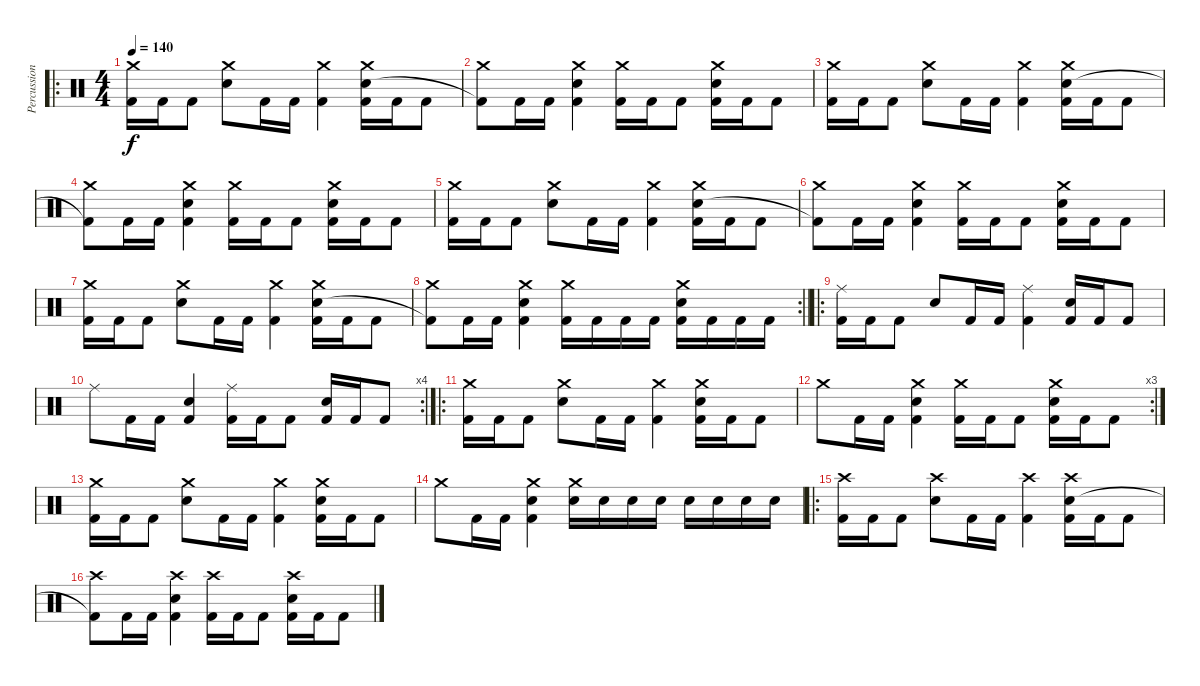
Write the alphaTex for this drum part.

\track ("Percussion" "Percussion") {instrument percussion}
\staff {score}
\articulation defaults
\ro
\ts (4 4)
\tempo 140
\clef neutral
\ks c
("Crash medium (hit)" "Kick (hit) 2").16{dy f} "Kick (hit) 2".16 "Kick (hit) 2".8 ("Crash medium (hit)" "Electric Snare (hit)").8 "Kick (hit) 2".16 "Kick (hit) 2".16 ("Crash medium (hit)" "Kick (hit) 2").4 ("Crash medium (hit)" "Electric Snare (hit)" "Kick (hit) 2").16 "Kick (hit) 2".16 "Kick (hit) 2".8 |
("Crash medium (hit)" "Kick (hit) 2"{t}).8 "Kick (hit) 2".16 "Kick (hit) 2".16 ("Crash medium (hit)" "Electric Snare (hit)" "Kick (hit) 2").4 ("Crash medium (hit)" "Kick (hit) 2").16 "Kick (hit) 2".16 "Kick (hit) 2".8 ("Crash medium (hit)" "Electric Snare (hit)" "Kick (hit) 2").16 "Kick (hit) 2".16 "Kick (hit) 2".8 |
("Crash medium (hit)" "Kick (hit) 2").16 "Kick (hit) 2".16 "Kick (hit) 2".8 ("Crash medium (hit)" "Electric Snare (hit)").8 "Kick (hit) 2".16 "Kick (hit) 2".16 ("Crash medium (hit)" "Kick (hit) 2").4 ("Crash medium (hit)" "Electric Snare (hit)" "Kick (hit) 2").16 "Kick (hit) 2".16 "Kick (hit) 2".8 |
("Crash medium (hit)" "Kick (hit) 2"{t}).8 "Kick (hit) 2".16 "Kick (hit) 2".16 ("Crash medium (hit)" "Electric Snare (hit)" "Kick (hit) 2").4 ("Crash medium (hit)" "Kick (hit) 2").16 "Kick (hit) 2".16 "Kick (hit) 2".8 ("Crash medium (hit)" "Electric Snare (hit)" "Kick (hit) 2").16 "Kick (hit) 2".16 "Kick (hit) 2".8 |
("Crash medium (hit)" "Kick (hit) 2").16 "Kick (hit) 2".16 "Kick (hit) 2".8 ("Crash medium (hit)" "Electric Snare (hit)").8 "Kick (hit) 2".16 "Kick (hit) 2".16 ("Crash medium (hit)" "Kick (hit) 2").4 ("Crash medium (hit)" "Electric Snare (hit)" "Kick (hit) 2").16 "Kick (hit) 2".16 "Kick (hit) 2".8 |
("Crash medium (hit)" "Kick (hit) 2"{t}).8 "Kick (hit) 2".16 "Kick (hit) 2".16 ("Crash medium (hit)" "Electric Snare (hit)" "Kick (hit) 2").4 ("Crash medium (hit)" "Kick (hit) 2").16 "Kick (hit) 2".16 "Kick (hit) 2".8 ("Crash medium (hit)" "Electric Snare (hit)" "Kick (hit) 2").16 "Kick (hit) 2".16 "Kick (hit) 2".8 |
("Crash medium (hit)" "Kick (hit) 2").16 "Kick (hit) 2".16 "Kick (hit) 2".8 ("Crash medium (hit)" "Electric Snare (hit)").8 "Kick (hit) 2".16 "Kick (hit) 2".16 ("Crash medium (hit)" "Kick (hit) 2").4 ("Crash medium (hit)" "Electric Snare (hit)" "Kick (hit) 2").16 "Kick (hit) 2".16 "Kick (hit) 2".8 |
\rc 2
\barLineRight lightlight
("Crash medium (hit)" "Kick (hit) 2"{t}).8 "Kick (hit) 2".16 "Kick (hit) 2".16 ("Crash medium (hit)" "Electric Snare (hit)" "Kick (hit) 2").4 ("Crash medium (hit)" "Kick (hit) 2").16 "Kick (hit) 2".16 "Kick (hit) 2".16 "Kick (hit) 2".16 ("Crash medium (hit)" "Electric Snare (hit)" "Kick (hit) 2").16 "Kick (hit) 2".16 "Kick (hit) 2".16 "Kick (hit) 2".16 |
\ro
("Ride (middle)" "Kick (hit) 2").16 "Kick (hit) 2".16 "Kick (hit) 2".8 "Electric Snare (hit)".8 "Kick (hit) 2".16 "Kick (hit) 2".16 ("Ride (middle)" "Kick (hit) 2").4 ("Electric Snare (hit)" "Kick (hit) 2").16 "Kick (hit) 2".16 "Kick (hit) 2".8 |
\rc 4 "Ride (middle)".8 "Kick (hit) 2".16 "Kick (hit) 2".16
("Electric Snare (hit)" "Kick (hit) 2").4 ("Ride (middle)" "Kick (hit) 2").16 "Kick (hit) 2".16 "Kick (hit) 2".8 ("Electric Snare (hit)" "Kick (hit) 2").16 "Kick (hit) 2".16 "Kick (hit) 2".8 |
\ro
("Crash medium (hit)" "Kick (hit) 2").16 "Kick (hit) 2".16 "Kick (hit) 2".8 ("Crash medium (hit)" "Electric Snare (hit)").8 "Kick (hit) 2".16 "Kick (hit) 2".16 ("Crash medium (hit)" "Kick (hit) 2").4 ("Crash medium (hit)" "Electric Snare (hit)" "Kick (hit) 2").16 "Kick (hit) 2".16 "Kick (hit) 2".8 |
\rc 3 "Crash medium (hit)".8 "Kick (hit) 2".16 "Kick (hit) 2".16
("Crash medium (hit)" "Electric Snare (hit)" "Kick (hit) 2").4 ("Crash medium (hit)" "Kick (hit) 2").16 "Kick (hit) 2".16 "Kick (hit) 2".8 ("Crash medium (hit)" "Electric Snare (hit)" "Kick (hit) 2").16 "Kick (hit) 2".16 "Kick (hit) 2".8 |
("Crash medium (hit)" "Kick (hit) 2").16 "Kick (hit) 2".16 "Kick (hit) 2".8 ("Crash medium (hit)" "Electric Snare (hit)").8 "Kick (hit) 2".16 "Kick (hit) 2".16 ("Crash medium (hit)" "Kick (hit) 2").4 ("Crash medium (hit)" "Electric Snare (hit)" "Kick (hit) 2").16 "Kick (hit) 2".16 "Kick (hit) 2".8 |
"Crash medium (hit)".8 "Kick (hit) 2".16 "Kick (hit) 2".16 ("Crash medium (hit)" "Electric Snare (hit)" "Kick (hit) 2").4 ("Crash medium (hit)" "Electric Snare (hit)").16 "Electric Snare (hit)".16 "Electric Snare (hit)".16 "Electric Snare (hit)".16 "Electric Snare (hit)".16 "Electric Snare (hit)".16 "Electric Snare (hit)".16 "Electric Snare (hit)".16 |
\ro
("Crash high (hit)" "Kick (hit) 2").16 "Kick (hit) 2".16 "Kick (hit) 2".8 ("Crash high (hit)" "Electric Snare (hit)").8 "Kick (hit) 2".16 "Kick (hit) 2".16 ("Crash high (hit)" "Kick (hit) 2").4 ("Crash high (hit)" "Electric Snare (hit)" "Kick (hit) 2").16 "Kick (hit) 2".16 "Kick (hit) 2".8 |
("Crash high (hit)" "Kick (hit) 2"{t}).8 "Kick (hit) 2".16 "Kick (hit) 2".16 ("Crash high (hit)" "Electric Snare (hit)" "Kick (hit) 2").4 ("Crash high (hit)" "Kick (hit) 2").16 "Kick (hit) 2".16 "Kick (hit) 2".8 ("Crash high (hit)" "Electric Snare (hit)" "Kick (hit) 2").16 "Kick (hit) 2".16 "Kick (hit) 2".8
